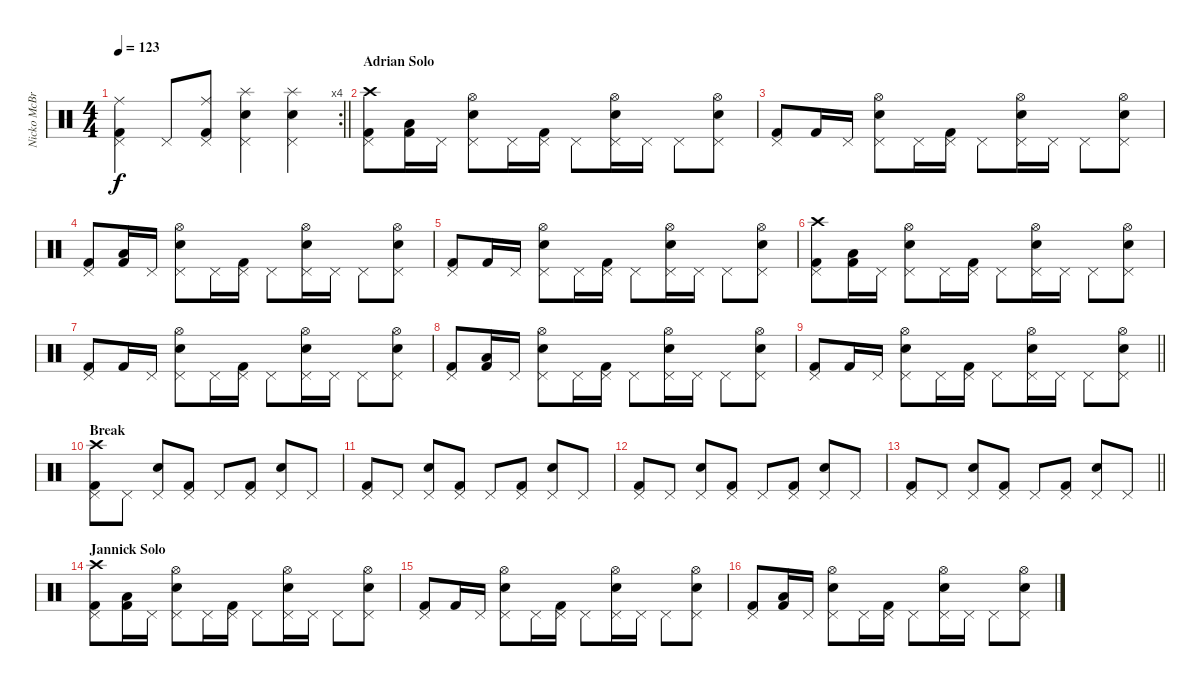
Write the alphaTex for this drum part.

\track ("Nicko McBrain" "Nicko McBr") {instrument percussion}
\staff {score}
\articulation defaults
\rc 4
\ts (4 4)
\tempo 123
\clef neutral
\barLineRight lightlight
\ks c
("Kick (hit) 2" "Pedal Hi-Hat (hit)" "Ride (middle)").4{dy f} "Pedal Hi-Hat (hit)".8 ("Kick (hit) 2" "Pedal Hi-Hat (hit)" "Ride (middle)").8 ("Snare (hit) 2" "Pedal Hi-Hat (hit)" "Splash (hit)").4 ("Snare (hit) 2" "Pedal Hi-Hat (hit)" "Splash (hit)").4 |
\section ("" "Adrian Solo")
("Kick (hit) 2" "Pedal Hi-Hat (hit)" "Crash high (hit)").8 ("Kick (hit) 2" "Low Tom (hit)").16 "Pedal Hi-Hat (hit)".16 ("Snare (hit) 2" "Pedal Hi-Hat (hit)" "Hi-Hat (open)").8 "Pedal Hi-Hat (hit)".16 ("Kick (hit) 2" "Pedal Hi-Hat (hit)").16 "Pedal Hi-Hat (hit)".8 ("Snare (hit) 2" "Pedal Hi-Hat (hit)" "Hi-Hat (open)").16 "Pedal Hi-Hat (hit)".16 "Pedal Hi-Hat (hit)".8 ("Snare (hit) 2" "Pedal Hi-Hat (hit)" "Hi-Hat (open)").8 |
("Kick (hit) 2" "Pedal Hi-Hat (hit)").8 "Kick (hit) 2".16 "Pedal Hi-Hat (hit)".16 ("Snare (hit) 2" "Pedal Hi-Hat (hit)" "Hi-Hat (open)").8 "Pedal Hi-Hat (hit)".16 ("Kick (hit) 2" "Pedal Hi-Hat (hit)").16 "Pedal Hi-Hat (hit)".8 ("Snare (hit) 2" "Pedal Hi-Hat (hit)" "Hi-Hat (open)").16 "Pedal Hi-Hat (hit)".16 "Pedal Hi-Hat (hit)".8 ("Snare (hit) 2" "Pedal Hi-Hat (hit)" "Hi-Hat (open)").8 |
("Kick (hit) 2" "Pedal Hi-Hat (hit)").8 ("Kick (hit) 2" "Low Tom (hit)").16 "Pedal Hi-Hat (hit)".16 ("Snare (hit) 2" "Pedal Hi-Hat (hit)" "Hi-Hat (open)").8 "Pedal Hi-Hat (hit)".16 ("Kick (hit) 2" "Pedal Hi-Hat (hit)").16 "Pedal Hi-Hat (hit)".8 ("Snare (hit) 2" "Pedal Hi-Hat (hit)" "Hi-Hat (open)").16 "Pedal Hi-Hat (hit)".16 "Pedal Hi-Hat (hit)".8 ("Snare (hit) 2" "Pedal Hi-Hat (hit)" "Hi-Hat (open)").8 |
("Kick (hit) 2" "Pedal Hi-Hat (hit)").8 "Kick (hit) 2".16 "Pedal Hi-Hat (hit)".16 ("Snare (hit) 2" "Pedal Hi-Hat (hit)" "Hi-Hat (open)").8 "Pedal Hi-Hat (hit)".16 ("Kick (hit) 2" "Pedal Hi-Hat (hit)").16 "Pedal Hi-Hat (hit)".8 ("Snare (hit) 2" "Pedal Hi-Hat (hit)" "Hi-Hat (open)").16 "Pedal Hi-Hat (hit)".16 "Pedal Hi-Hat (hit)".8 ("Snare (hit) 2" "Pedal Hi-Hat (hit)" "Hi-Hat (open)").8 |
("Kick (hit) 2" "Pedal Hi-Hat (hit)" "Crash high (hit)").8 ("Kick (hit) 2" "Low Tom (hit)").16 "Pedal Hi-Hat (hit)".16 ("Snare (hit) 2" "Pedal Hi-Hat (hit)" "Hi-Hat (open)").8 "Pedal Hi-Hat (hit)".16 ("Kick (hit) 2" "Pedal Hi-Hat (hit)").16 "Pedal Hi-Hat (hit)".8 ("Snare (hit) 2" "Pedal Hi-Hat (hit)" "Hi-Hat (open)").16 "Pedal Hi-Hat (hit)".16 "Pedal Hi-Hat (hit)".8 ("Snare (hit) 2" "Pedal Hi-Hat (hit)" "Hi-Hat (open)").8 |
("Kick (hit) 2" "Pedal Hi-Hat (hit)").8 "Kick (hit) 2".16 "Pedal Hi-Hat (hit)".16 ("Snare (hit) 2" "Pedal Hi-Hat (hit)" "Hi-Hat (open)").8 "Pedal Hi-Hat (hit)".16 ("Kick (hit) 2" "Pedal Hi-Hat (hit)").16 "Pedal Hi-Hat (hit)".8 ("Snare (hit) 2" "Pedal Hi-Hat (hit)" "Hi-Hat (open)").16 "Pedal Hi-Hat (hit)".16 "Pedal Hi-Hat (hit)".8 ("Snare (hit) 2" "Pedal Hi-Hat (hit)" "Hi-Hat (open)").8 |
("Kick (hit) 2" "Pedal Hi-Hat (hit)").8 ("Kick (hit) 2" "Low Tom (hit)").16 "Pedal Hi-Hat (hit)".16 ("Snare (hit) 2" "Pedal Hi-Hat (hit)" "Hi-Hat (open)").8 "Pedal Hi-Hat (hit)".16 ("Kick (hit) 2" "Pedal Hi-Hat (hit)").16 "Pedal Hi-Hat (hit)".8 ("Snare (hit) 2" "Pedal Hi-Hat (hit)" "Hi-Hat (open)").16 "Pedal Hi-Hat (hit)".16 "Pedal Hi-Hat (hit)".8 ("Snare (hit) 2" "Pedal Hi-Hat (hit)" "Hi-Hat (open)").8 |
\barLineRight lightlight
("Kick (hit) 2" "Pedal Hi-Hat (hit)").8 "Kick (hit) 2".16 "Pedal Hi-Hat (hit)".16 ("Snare (hit) 2" "Pedal Hi-Hat (hit)" "Hi-Hat (open)").8 "Pedal Hi-Hat (hit)".16 ("Kick (hit) 2" "Pedal Hi-Hat (hit)").16 "Pedal Hi-Hat (hit)".8 ("Snare (hit) 2" "Pedal Hi-Hat (hit)" "Hi-Hat (open)").16 "Pedal Hi-Hat (hit)".16 "Pedal Hi-Hat (hit)".8 ("Snare (hit) 2" "Pedal Hi-Hat (hit)" "Hi-Hat (open)").8 |
\section ("" "Break")
("Kick (hit) 2" "Pedal Hi-Hat (hit)" "Crash high (hit)").8 "Pedal Hi-Hat (hit)".8 ("Snare (hit) 2" "Pedal Hi-Hat (hit)").8 ("Kick (hit) 2" "Pedal Hi-Hat (hit)").8 "Pedal Hi-Hat (hit)".8 ("Kick (hit) 2" "Pedal Hi-Hat (hit)").8 ("Snare (hit) 2" "Pedal Hi-Hat (hit)").8 "Pedal Hi-Hat (hit)".8 |
("Kick (hit) 2" "Pedal Hi-Hat (hit)").8 "Pedal Hi-Hat (hit)".8 ("Snare (hit) 2" "Pedal Hi-Hat (hit)").8 ("Kick (hit) 2" "Pedal Hi-Hat (hit)").8 "Pedal Hi-Hat (hit)".8 ("Kick (hit) 2" "Pedal Hi-Hat (hit)").8 ("Snare (hit) 2" "Pedal Hi-Hat (hit)").8 "Pedal Hi-Hat (hit)".8 |
("Kick (hit) 2" "Pedal Hi-Hat (hit)").8 "Pedal Hi-Hat (hit)".8 ("Snare (hit) 2" "Pedal Hi-Hat (hit)").8 ("Kick (hit) 2" "Pedal Hi-Hat (hit)").8 "Pedal Hi-Hat (hit)".8 ("Kick (hit) 2" "Pedal Hi-Hat (hit)").8 ("Snare (hit) 2" "Pedal Hi-Hat (hit)").8 "Pedal Hi-Hat (hit)".8 |
\barLineRight lightlight
("Kick (hit) 2" "Pedal Hi-Hat (hit)").8 "Pedal Hi-Hat (hit)".8 ("Snare (hit) 2" "Pedal Hi-Hat (hit)").8 ("Kick (hit) 2" "Pedal Hi-Hat (hit)").8 "Pedal Hi-Hat (hit)".8 ("Kick (hit) 2" "Pedal Hi-Hat (hit)").8 ("Snare (hit) 2" "Pedal Hi-Hat (hit)").8 "Pedal Hi-Hat (hit)".8 |
\section ("" "Jannick Solo")
("Kick (hit) 2" "Pedal Hi-Hat (hit)" "Crash high (hit)").8 ("Kick (hit) 2" "Low Tom (hit)").16 "Pedal Hi-Hat (hit)".16 ("Snare (hit) 2" "Pedal Hi-Hat (hit)" "Hi-Hat (open)").8 "Pedal Hi-Hat (hit)".16 ("Kick (hit) 2" "Pedal Hi-Hat (hit)").16 "Pedal Hi-Hat (hit)".8 ("Snare (hit) 2" "Pedal Hi-Hat (hit)" "Hi-Hat (open)").16 "Pedal Hi-Hat (hit)".16 "Pedal Hi-Hat (hit)".8 ("Snare (hit) 2" "Pedal Hi-Hat (hit)" "Hi-Hat (open)").8 |
("Kick (hit) 2" "Pedal Hi-Hat (hit)").8 "Kick (hit) 2".16 "Pedal Hi-Hat (hit)".16 ("Snare (hit) 2" "Pedal Hi-Hat (hit)" "Hi-Hat (open)").8 "Pedal Hi-Hat (hit)".16 ("Kick (hit) 2" "Pedal Hi-Hat (hit)").16 "Pedal Hi-Hat (hit)".8 ("Snare (hit) 2" "Pedal Hi-Hat (hit)" "Hi-Hat (open)").16 "Pedal Hi-Hat (hit)".16 "Pedal Hi-Hat (hit)".8 ("Snare (hit) 2" "Pedal Hi-Hat (hit)" "Hi-Hat (open)").8 |
("Kick (hit) 2" "Pedal Hi-Hat (hit)").8 ("Kick (hit) 2" "Low Tom (hit)").16 "Pedal Hi-Hat (hit)".16 ("Snare (hit) 2" "Pedal Hi-Hat (hit)" "Hi-Hat (open)").8 "Pedal Hi-Hat (hit)".16 ("Kick (hit) 2" "Pedal Hi-Hat (hit)").16 "Pedal Hi-Hat (hit)".8 ("Snare (hit) 2" "Pedal Hi-Hat (hit)" "Hi-Hat (open)").16 "Pedal Hi-Hat (hit)".16 "Pedal Hi-Hat (hit)".8 ("Snare (hit) 2" "Pedal Hi-Hat (hit)" "Hi-Hat (open)").8
